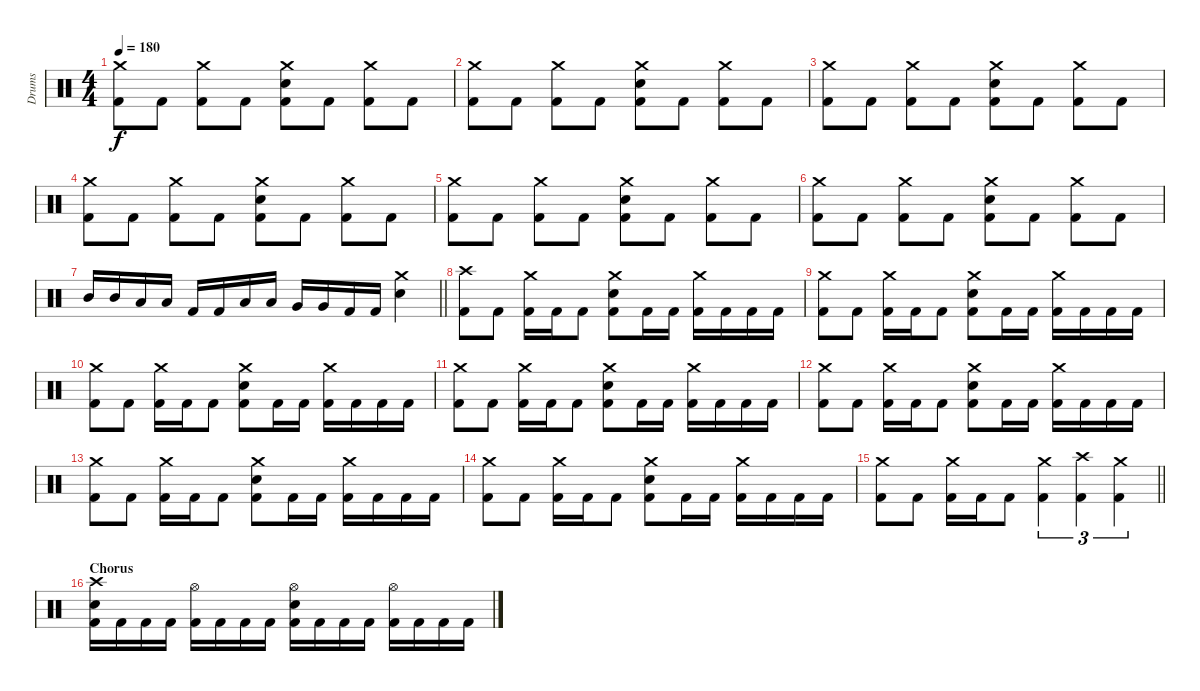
\track ("Drums" "Drums") {instrument percussion}
\staff {score}
\articulation defaults
\ts (4 4)
\tempo 180
\clef neutral
\ks c
("Crash medium (hit)" "Kick (hit) 2").8{dy f} "Kick (hit) 2".8 ("Crash medium (hit)" "Kick (hit) 2").8 "Kick (hit) 2".8 ("Crash medium (hit)" "Electric Snare (hit)" "Kick (hit) 2").8 "Kick (hit) 2".8 ("Crash medium (hit)" "Kick (hit) 2").8 "Kick (hit) 2".8 |
("Crash medium (hit)" "Kick (hit) 2").8 "Kick (hit) 2".8 ("Crash medium (hit)" "Kick (hit) 2").8 "Kick (hit) 2".8 ("Crash medium (hit)" "Electric Snare (hit)" "Kick (hit) 2").8 "Kick (hit) 2".8 ("Crash medium (hit)" "Kick (hit) 2").8 "Kick (hit) 2".8 |
("Crash medium (hit)" "Kick (hit) 2").8 "Kick (hit) 2".8 ("Crash medium (hit)" "Kick (hit) 2").8 "Kick (hit) 2".8 ("Crash medium (hit)" "Electric Snare (hit)" "Kick (hit) 2").8 "Kick (hit) 2".8 ("Crash medium (hit)" "Kick (hit) 2").8 "Kick (hit) 2".8 |
("Crash medium (hit)" "Kick (hit) 2").8 "Kick (hit) 2".8 ("Crash medium (hit)" "Kick (hit) 2").8 "Kick (hit) 2".8 ("Crash medium (hit)" "Electric Snare (hit)" "Kick (hit) 2").8 "Kick (hit) 2".8 ("Crash medium (hit)" "Kick (hit) 2").8 "Kick (hit) 2".8 |
("Crash medium (hit)" "Kick (hit) 2").8 "Kick (hit) 2".8 ("Crash medium (hit)" "Kick (hit) 2").8 "Kick (hit) 2".8 ("Crash medium (hit)" "Electric Snare (hit)" "Kick (hit) 2").8 "Kick (hit) 2".8 ("Crash medium (hit)" "Kick (hit) 2").8 "Kick (hit) 2".8 |
("Crash medium (hit)" "Kick (hit) 2").8 "Kick (hit) 2".8 ("Crash medium (hit)" "Kick (hit) 2").8 "Kick (hit) 2".8 ("Crash medium (hit)" "Electric Snare (hit)" "Kick (hit) 2").8 "Kick (hit) 2".8 ("Crash medium (hit)" "Kick (hit) 2").8 "Kick (hit) 2".8 |
\barLineRight lightlight "Mid Tom (hit)".16 "Mid Tom (hit)".16 "Low Tom (hit)".16 "Low Tom (hit)".16 "Kick (hit) 2".16 "Kick (hit) 2".16 "Low Tom (hit)".16 "Low Tom (hit)".16 "Very Low Tom (hit)".16 "Very Low Tom (hit)".16 "Kick (hit) 2".16 "Kick (hit) 2".16
("Crash medium (hit)" "Electric Snare (hit)").4 |
("Crash high (hit)" "Kick (hit) 2").8 "Kick (hit) 2".8 ("Crash medium (hit)" "Kick (hit) 2").16 "Kick (hit) 2".16 "Kick (hit) 2".8 ("Crash medium (hit)" "Electric Snare (hit)" "Kick (hit) 2").8 "Kick (hit) 2".16 "Kick (hit) 2".16 ("Crash medium (hit)" "Kick (hit) 2").16 "Kick (hit) 2".16 "Kick (hit) 2".16 "Kick (hit) 2".16 |
("Crash medium (hit)" "Kick (hit) 2").8 "Kick (hit) 2".8 ("Crash medium (hit)" "Kick (hit) 2").16 "Kick (hit) 2".16 "Kick (hit) 2".8 ("Crash medium (hit)" "Electric Snare (hit)" "Kick (hit) 2").8 "Kick (hit) 2".16 "Kick (hit) 2".16 ("Crash medium (hit)" "Kick (hit) 2").16 "Kick (hit) 2".16 "Kick (hit) 2".16 "Kick (hit) 2".16 |
("Crash medium (hit)" "Kick (hit) 2").8 "Kick (hit) 2".8 ("Crash medium (hit)" "Kick (hit) 2").16 "Kick (hit) 2".16 "Kick (hit) 2".8 ("Crash medium (hit)" "Electric Snare (hit)" "Kick (hit) 2").8 "Kick (hit) 2".16 "Kick (hit) 2".16 ("Crash medium (hit)" "Kick (hit) 2").16 "Kick (hit) 2".16 "Kick (hit) 2".16 "Kick (hit) 2".16 |
("Crash medium (hit)" "Kick (hit) 2").8 "Kick (hit) 2".8 ("Crash medium (hit)" "Kick (hit) 2").16 "Kick (hit) 2".16 "Kick (hit) 2".8 ("Crash medium (hit)" "Electric Snare (hit)" "Kick (hit) 2").8 "Kick (hit) 2".16 "Kick (hit) 2".16 ("Crash medium (hit)" "Kick (hit) 2").16 "Kick (hit) 2".16 "Kick (hit) 2".16 "Kick (hit) 2".16 |
("Crash medium (hit)" "Kick (hit) 2").8 "Kick (hit) 2".8 ("Crash medium (hit)" "Kick (hit) 2").16 "Kick (hit) 2".16 "Kick (hit) 2".8 ("Crash medium (hit)" "Electric Snare (hit)" "Kick (hit) 2").8 "Kick (hit) 2".16 "Kick (hit) 2".16 ("Crash medium (hit)" "Kick (hit) 2").16 "Kick (hit) 2".16 "Kick (hit) 2".16 "Kick (hit) 2".16 |
("Crash medium (hit)" "Kick (hit) 2").8 "Kick (hit) 2".8 ("Crash medium (hit)" "Kick (hit) 2").16 "Kick (hit) 2".16 "Kick (hit) 2".8 ("Crash medium (hit)" "Electric Snare (hit)" "Kick (hit) 2").8 "Kick (hit) 2".16 "Kick (hit) 2".16 ("Crash medium (hit)" "Kick (hit) 2").16 "Kick (hit) 2".16 "Kick (hit) 2".16 "Kick (hit) 2".16 |
("Crash medium (hit)" "Kick (hit) 2").8 "Kick (hit) 2".8 ("Crash medium (hit)" "Kick (hit) 2").16 "Kick (hit) 2".16 "Kick (hit) 2".8 ("Crash medium (hit)" "Electric Snare (hit)" "Kick (hit) 2").8 "Kick (hit) 2".16 "Kick (hit) 2".16 ("Crash medium (hit)" "Kick (hit) 2").16 "Kick (hit) 2".16 "Kick (hit) 2".16 "Kick (hit) 2".16 |
\barLineRight lightlight
("Crash medium (hit)" "Kick (hit) 2").8 "Kick (hit) 2".8 ("Crash medium (hit)" "Kick (hit) 2").16 "Kick (hit) 2".16 "Kick (hit) 2".8 ("Crash medium (hit)" "Kick (hit) 2").4{tu (3 2)} ("Crash high (hit)" "Kick (hit) 2").4{tu (3 2)} ("Crash medium (hit)" "Kick (hit) 2").4{tu (3 2)} |
\section ("" "Chorus")
("Crash high (hit)" "Electric Snare (hit)" "Kick (hit) 2").16 "Kick (hit) 2".16 "Kick (hit) 2".16 "Kick (hit) 2".16 ("Hi-Hat (open)" "Kick (hit) 2").16 "Kick (hit) 2".16 "Kick (hit) 2".16 "Kick (hit) 2".16 ("Hi-Hat (open)" "Electric Snare (hit)" "Kick (hit) 2").16 "Kick (hit) 2".16 "Kick (hit) 2".16 "Kick (hit) 2".16 ("Hi-Hat (open)" "Kick (hit) 2").16 "Kick (hit) 2".16 "Kick (hit) 2".16 "Kick (hit) 2".16
